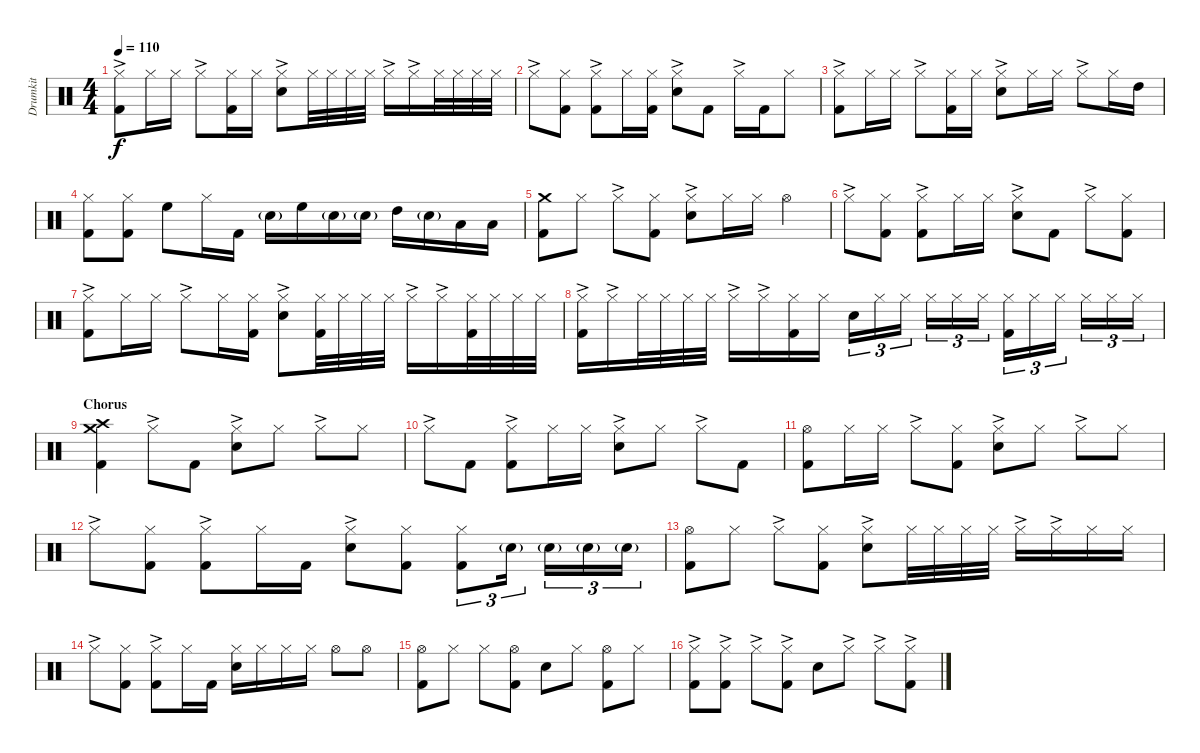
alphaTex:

\track ("Drumkit" "Drumkit") {instrument percussion}
\staff {score}
\articulation defaults
\ts (4 4)
\tempo 110
\clef neutral
\ks c
("Hi-Hat (closed)"{ac} "Kick (hit) 2").8{dy f} "Hi-Hat (closed)".16 "Hi-Hat (closed)".16 "Hi-Hat (closed)"{ac}.8 ("Hi-Hat (closed)" "Kick (hit) 2").16 "Hi-Hat (closed)".16 ("Hi-Hat (closed)"{ac} "Snare (hit) 2").8 "Hi-Hat (closed)".32 "Hi-Hat (closed)".32 "Hi-Hat (closed)".32 "Hi-Hat (closed)".32 "Hi-Hat (closed)"{ac}.16 "Hi-Hat (closed)"{ac}.16 "Hi-Hat (closed)".32 "Hi-Hat (closed)".32 "Hi-Hat (closed)".32 "Hi-Hat (closed)".32 |
"Hi-Hat (closed)"{ac}.8 ("Hi-Hat (closed)" "Kick (hit) 2").8 ("Hi-Hat (closed)"{ac} "Kick (hit) 2").8 "Hi-Hat (closed)".16 ("Hi-Hat (closed)" "Kick (hit) 2").16 ("Hi-Hat (closed)"{ac} "Snare (hit) 2").8 "Kick (hit) 2".8 "Hi-Hat (closed)"{ac}.16 "Kick (hit) 2".16 "Hi-Hat (closed)".8 |
("Hi-Hat (closed)"{ac} "Kick (hit) 2").8 "Hi-Hat (closed)".16 "Hi-Hat (closed)".16 "Hi-Hat (closed)"{ac}.8 ("Hi-Hat (closed)" "Kick (hit) 2").16 "Hi-Hat (closed)".16 ("Hi-Hat (closed)"{ac} "Snare (hit) 2").8 "Hi-Hat (closed)".16 "Hi-Hat (closed)".16 "Hi-Hat (closed)"{ac}.8 "Hi-Hat (closed)".16 "High Tom (hit)".16 |
("Hi-Hat (closed)" "Kick (hit) 2").8 ("Hi-Hat (closed)" "Kick (hit) 2").8 "High Floor Tom (hit)".8 "Hi-Hat (closed)".16 "Kick (hit) 2".16 "Snare (hit) 2"{g}.16 "High Floor Tom (hit)".16 "Snare (hit) 2"{g}.16 "Snare (hit) 2"{g}.16 "High Tom (hit)".16 "Snare (hit) 2"{g}.16 "Low Tom (hit)".16 "Low Tom (hit)".16 |
("Crash medium (hit)" "Kick (hit) 2").8 "Hi-Hat (closed)".8 "Hi-Hat (closed)"{ac}.8 ("Hi-Hat (closed)" "Kick (hit) 2").8 ("Hi-Hat (closed)"{ac} "Snare (hit) 2").8 "Hi-Hat (closed)".16 "Hi-Hat (closed)".16 "Hi-Hat (open)".4 |
"Hi-Hat (closed)"{ac}.8 ("Hi-Hat (closed)" "Kick (hit) 2").8 ("Hi-Hat (closed)"{ac} "Kick (hit) 2").8 "Hi-Hat (closed)".16 "Hi-Hat (closed)".16 ("Hi-Hat (closed)"{ac} "Snare (hit) 2").8 "Kick (hit) 2".8 "Hi-Hat (closed)"{ac}.8 ("Hi-Hat (closed)" "Kick (hit) 2").8 |
("Hi-Hat (closed)"{ac} "Kick (hit) 2").8 "Hi-Hat (closed)".16 "Hi-Hat (closed)".16 "Hi-Hat (closed)"{ac}.8 "Hi-Hat (closed)".16 ("Hi-Hat (closed)" "Kick (hit) 2").16 ("Hi-Hat (closed)"{ac} "Snare (hit) 2").8 ("Hi-Hat (closed)" "Kick (hit) 2").32 "Hi-Hat (closed)".32 "Hi-Hat (closed)".32 "Hi-Hat (closed)".32 "Hi-Hat (closed)"{ac}.16 "Hi-Hat (closed)"{ac}.16 ("Hi-Hat (closed)" "Kick (hit) 2").32 "Hi-Hat (closed)".32 "Hi-Hat (closed)".32 "Hi-Hat (closed)".32 |
("Hi-Hat (closed)"{ac} "Kick (hit) 2").16 "Hi-Hat (closed)"{ac}.16 "Hi-Hat (closed)".32 "Hi-Hat (closed)".32 "Hi-Hat (closed)".32 "Hi-Hat (closed)".32 "Hi-Hat (closed)"{ac}.16 "Hi-Hat (closed)"{ac}.16 ("Hi-Hat (closed)" "Kick (hit) 2").16 "Hi-Hat (closed)".16 "Snare (hit) 2".16{tu (3 2)} "Hi-Hat (closed)".16{tu (3 2)} "Hi-Hat (closed)".16{tu (3 2)} "Hi-Hat (closed)".16{tu (3 2)} "Hi-Hat (closed)".16{tu (3 2)} "Hi-Hat (closed)".16{tu (3 2)} ("Hi-Hat (closed)" "Kick (hit) 2").16{tu (3 2)} "Hi-Hat (closed)".16{tu (3 2)} "Hi-Hat (closed)".16{tu (3 2)} "Hi-Hat (closed)".16{tu (3 2)} "Hi-Hat (closed)".16{tu (3 2)} "Hi-Hat (closed)".16{tu (3 2)} |
\section ("" "Chorus")
("Crash medium (hit)" "Crash high (hit)" "Kick (hit) 2").4 "Hi-Hat (closed)"{ac}.8 "Kick (hit) 2".8 ("Hi-Hat (closed)"{ac} "Snare (hit) 2").8 "Hi-Hat (closed)".8 "Hi-Hat (closed)"{ac}.8 "Hi-Hat (closed)".8 |
"Hi-Hat (closed)"{ac}.8 "Kick (hit) 2".8 ("Hi-Hat (closed)"{ac} "Kick (hit) 2").8 "Hi-Hat (closed)".16 "Hi-Hat (closed)".16 ("Hi-Hat (closed)"{ac} "Snare (hit) 2").8 "Hi-Hat (closed)".8 "Hi-Hat (closed)"{ac}.8 "Kick (hit) 2".8 |
("Hi-Hat (open)" "Kick (hit) 2").8 "Hi-Hat (closed)".16 "Hi-Hat (closed)".16 "Hi-Hat (closed)"{ac}.8 ("Hi-Hat (closed)" "Kick (hit) 2").8 ("Hi-Hat (closed)"{ac} "Snare (hit) 2").8 "Hi-Hat (closed)".8 "Hi-Hat (closed)"{ac}.8 "Hi-Hat (closed)".8 |
"Hi-Hat (closed)"{ac}.8 ("Hi-Hat (closed)" "Kick (hit) 2").8 ("Hi-Hat (closed)"{ac} "Kick (hit) 2").8 "Hi-Hat (closed)".16 "Kick (hit) 2".16 ("Hi-Hat (closed)"{ac} "Snare (hit) 2").8 ("Hi-Hat (closed)" "Kick (hit) 2").8 ("Hi-Hat (closed)" "Kick (hit) 2").8{tu (3 2)} "Snare (hit) 2"{g}.16{tu (3 2)} "Snare (hit) 2"{g}.16{tu (3 2)} "Snare (hit) 2"{g}.16{tu (3 2)} "Snare (hit) 2"{g}.16{tu (3 2)} |
("Hi-Hat (open)" "Kick (hit) 2").8 "Hi-Hat (closed)".8 "Hi-Hat (closed)"{ac}.8 ("Hi-Hat (closed)" "Kick (hit) 2").8 ("Hi-Hat (closed)"{ac} "Snare (hit) 2").8 "Hi-Hat (closed)".32 "Hi-Hat (closed)".32 "Hi-Hat (closed)".32 "Hi-Hat (closed)".32 "Hi-Hat (closed)"{ac}.16 "Hi-Hat (closed)"{ac}.16 "Hi-Hat (closed)".16 "Hi-Hat (closed)".16 |
"Hi-Hat (closed)"{ac}.8 ("Hi-Hat (closed)" "Kick (hit) 2").8 ("Hi-Hat (closed)"{ac} "Kick (hit) 2").8 "Hi-Hat (closed)".16 "Kick (hit) 2".16 ("Hi-Hat (closed)" "Snare (hit) 2").16 "Hi-Hat (closed)".16 "Hi-Hat (closed)".16 "Hi-Hat (closed)".16 "Hi-Hat (open)".8 "Hi-Hat (open)".8 |
("Hi-Hat (open)" "Kick (hit) 2").8 "Hi-Hat (closed)".8 "Hi-Hat (closed)".8 ("Hi-Hat (open)" "Kick (hit) 2").8 "Snare (hit) 2".8 "Hi-Hat (closed)".8 ("Hi-Hat (open)" "Kick (hit) 2").8 "Hi-Hat (closed)".8 |
("Hi-Hat (closed)"{ac} "Kick (hit) 2").8 ("Hi-Hat (closed)"{ac} "Kick (hit) 2").8 "Hi-Hat (closed)"{ac}.8 ("Hi-Hat (closed)"{ac} "Kick (hit) 2").8 "Snare (hit) 2".8 "Hi-Hat (closed)"{ac}.8 "Hi-Hat (closed)"{ac}.8 ("Hi-Hat (closed)"{ac} "Kick (hit) 2").8
